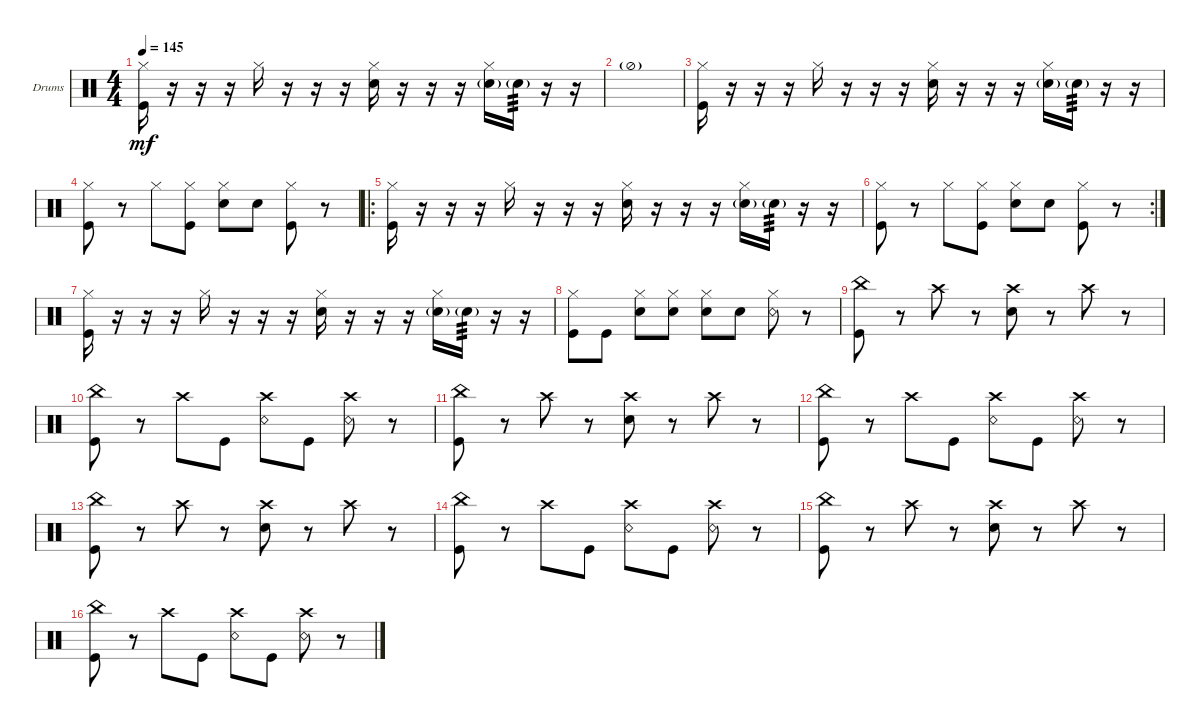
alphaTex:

\defaultSystemsLayout 4
\bracketExtendMode groupsimilarinstruments
\firstSystemTrackNameOrientation horizontal
\otherSystemsTrackNameOrientation horizontal
\track ("Drumkit" "Drums") {instrument percussion}
\staff {score}
\articulation defaults
\ts (4 4)
\tempo 145
\clef neutral
\ks c
("Kick (hit)" "Hi-Hat (closed)").16{dy mf} r.16 r.16 r.16 "Hi-Hat (closed)".16 r.16 r.16 r.16 ("Snare (hit) 2" "Hi-Hat (closed)").16 r.16 r.16 r.16 ("Snare (hit) 2"{g} "Hi-Hat (closed)").16 "Snare (hit) 2"{g}.16{tp 3} r.16 r.16 |
"Hi-Hat (half)"{g}.1 |
("Kick (hit)" "Hi-Hat (closed)").16 r.16 r.16 r.16 "Hi-Hat (closed)".16 r.16 r.16 r.16 ("Snare (hit) 2" "Hi-Hat (closed)").16 r.16 r.16 r.16 ("Snare (hit) 2"{g} "Hi-Hat (closed)").16 "Snare (hit) 2"{g}.16{tp 3} r.16 r.16 |
("Kick (hit)" "Hi-Hat (closed)").8 r.8 "Hi-Hat (closed)".8 ("Kick (hit)" "Hi-Hat (closed)").8 ("Snare (hit) 2" "Hi-Hat (closed)").8 "Snare (hit) 2".8 ("Kick (hit)" "Hi-Hat (closed)").8 r.8 |
\ro
("Kick (hit)" "Hi-Hat (closed)").16 r.16 r.16 r.16 "Hi-Hat (closed)".16 r.16 r.16 r.16 ("Snare (hit) 2" "Hi-Hat (closed)").16 r.16 r.16 r.16 ("Snare (hit) 2"{g} "Hi-Hat (closed)").16 "Snare (hit) 2"{g}.16{tp 3} r.16 r.16 |
\rc 2
("Kick (hit)" "Hi-Hat (closed)").8 r.8 "Hi-Hat (closed)".8 ("Kick (hit)" "Hi-Hat (closed)").8 ("Snare (hit) 2" "Hi-Hat (closed)").8 "Snare (hit) 2".8 ("Kick (hit)" "Hi-Hat (closed)").8 r.8 |
("Kick (hit)" "Hi-Hat (closed)").16 r.16 r.16 r.16 "Hi-Hat (closed)".16 r.16 r.16 r.16 ("Snare (hit) 2" "Hi-Hat (closed)").16 r.16 r.16 r.16 ("Snare (hit) 2"{g} "Hi-Hat (closed)").16 "Snare (hit) 2"{g}.16{tp 3} r.16 r.16 |
("Kick (hit)" "Hi-Hat (closed)").8 "Kick (hit)".8 ("Hi-Hat (closed)" "Snare (hit) 2").8 ("Hi-Hat (closed)" "Snare (hit) 2").8 ("Snare (hit) 2" "Hi-Hat (closed)").8 "Snare (hit) 2".8 ("Hi-Hat (closed)" "Snare (rim shot)").8 r.8 |
("Kick (hit)" "China (hit)").8 r.8 "Crash high (hit)".8 r.8 ("Snare (hit) 2" "Crash high (hit)").8 r.8 "Crash high (hit)".8 r.8 |
("Kick (hit)" "China (hit)").8 r.8 "Crash high (hit)".8 "Kick (hit)".8 ("Snare (rim shot)" "Crash high (hit)").8 "Kick (hit)".8 ("Crash high (hit)" "Snare (rim shot)").8 r.8 |
("Kick (hit)" "China (hit)").8 r.8 "Crash high (hit)".8 r.8 ("Snare (hit) 2" "Crash high (hit)").8 r.8 "Crash high (hit)".8 r.8 |
("Kick (hit)" "China (hit)").8 r.8 "Crash high (hit)".8 "Kick (hit)".8 ("Snare (rim shot)" "Crash high (hit)").8 "Kick (hit)".8 ("Crash high (hit)" "Snare (rim shot)").8 r.8 |
("Kick (hit)" "China (hit)").8 r.8 "Crash high (hit)".8 r.8 ("Snare (hit) 2" "Crash high (hit)").8 r.8 "Crash high (hit)".8 r.8 |
("Kick (hit)" "China (hit)").8 r.8 "Crash high (hit)".8 "Kick (hit)".8 ("Snare (rim shot)" "Crash high (hit)").8 "Kick (hit)".8 ("Crash high (hit)" "Snare (rim shot)").8 r.8 |
("Kick (hit)" "China (hit)").8 r.8 "Crash high (hit)".8 r.8 ("Snare (hit) 2" "Crash high (hit)").8 r.8 "Crash high (hit)".8 r.8 |
("Kick (hit)" "China (hit)").8 r.8 "Crash high (hit)".8 "Kick (hit)".8 ("Snare (rim shot)" "Crash high (hit)").8 "Kick (hit)".8 ("Crash high (hit)" "Snare (rim shot)").8 r.8
